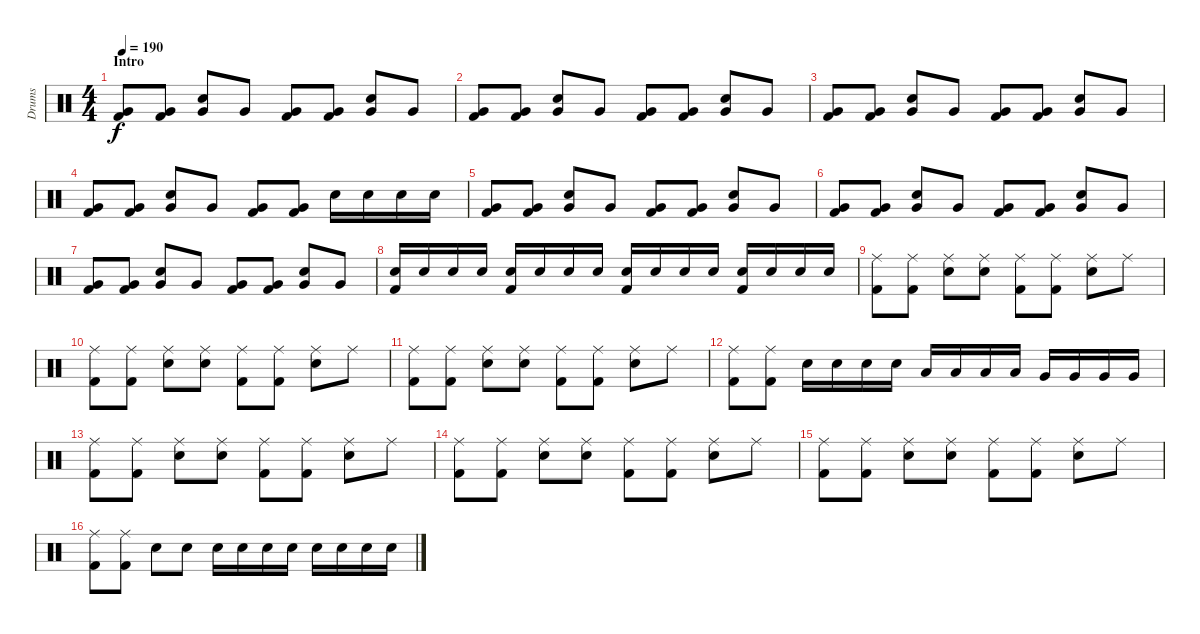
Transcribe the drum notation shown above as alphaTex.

\track ("Drums" "Drums") {instrument percussion}
\staff {score}
\articulation defaults
\ts (4 4)
\section ("" "Intro")
\tempo 190
\clef neutral
\ks c
("Very Low Tom (hit)" "Kick (hit) 2").8{dy f} ("Very Low Tom (hit)" "Kick (hit) 2").8 ("Very Low Tom (hit)" "Electric Snare (hit)").8 "Very Low Tom (hit)".8 ("Very Low Tom (hit)" "Kick (hit) 2").8 ("Very Low Tom (hit)" "Kick (hit) 2").8 ("Very Low Tom (hit)" "Electric Snare (hit)").8 "Very Low Tom (hit)".8 |
("Very Low Tom (hit)" "Kick (hit) 2").8 ("Very Low Tom (hit)" "Kick (hit) 2").8 ("Very Low Tom (hit)" "Electric Snare (hit)").8 "Very Low Tom (hit)".8 ("Very Low Tom (hit)" "Kick (hit) 2").8 ("Very Low Tom (hit)" "Kick (hit) 2").8 ("Very Low Tom (hit)" "Electric Snare (hit)").8 "Very Low Tom (hit)".8 |
("Very Low Tom (hit)" "Kick (hit) 2").8 ("Very Low Tom (hit)" "Kick (hit) 2").8 ("Very Low Tom (hit)" "Electric Snare (hit)").8 "Very Low Tom (hit)".8 ("Very Low Tom (hit)" "Kick (hit) 2").8 ("Very Low Tom (hit)" "Kick (hit) 2").8 ("Very Low Tom (hit)" "Electric Snare (hit)").8 "Very Low Tom (hit)".8 |
("Very Low Tom (hit)" "Kick (hit) 2").8 ("Very Low Tom (hit)" "Kick (hit) 2").8 ("Very Low Tom (hit)" "Electric Snare (hit)").8 "Very Low Tom (hit)".8 ("Very Low Tom (hit)" "Kick (hit) 2").8 ("Very Low Tom (hit)" "Kick (hit) 2").8 "Electric Snare (hit)".16 "Electric Snare (hit)".16 "Electric Snare (hit)".16 "Electric Snare (hit)".16 |
("Very Low Tom (hit)" "Kick (hit) 2").8 ("Very Low Tom (hit)" "Kick (hit) 2").8 ("Very Low Tom (hit)" "Electric Snare (hit)").8 "Very Low Tom (hit)".8 ("Very Low Tom (hit)" "Kick (hit) 2").8 ("Very Low Tom (hit)" "Kick (hit) 2").8 ("Very Low Tom (hit)" "Electric Snare (hit)").8 "Very Low Tom (hit)".8 |
("Very Low Tom (hit)" "Kick (hit) 2").8 ("Very Low Tom (hit)" "Kick (hit) 2").8 ("Very Low Tom (hit)" "Electric Snare (hit)").8 "Very Low Tom (hit)".8 ("Very Low Tom (hit)" "Kick (hit) 2").8 ("Very Low Tom (hit)" "Kick (hit) 2").8 ("Very Low Tom (hit)" "Electric Snare (hit)").8 "Very Low Tom (hit)".8 |
("Very Low Tom (hit)" "Kick (hit) 2").8 ("Very Low Tom (hit)" "Kick (hit) 2").8 ("Very Low Tom (hit)" "Electric Snare (hit)").8 "Very Low Tom (hit)".8 ("Very Low Tom (hit)" "Kick (hit) 2").8 ("Very Low Tom (hit)" "Kick (hit) 2").8 ("Very Low Tom (hit)" "Electric Snare (hit)").8 "Very Low Tom (hit)".8 |
("Kick (hit) 2" "Electric Snare (hit)").16 "Electric Snare (hit)".16 "Electric Snare (hit)".16 "Electric Snare (hit)".16 ("Kick (hit) 2" "Electric Snare (hit)").16 "Electric Snare (hit)".16 "Electric Snare (hit)".16 "Electric Snare (hit)".16 ("Kick (hit) 2" "Electric Snare (hit)").16 "Electric Snare (hit)".16 "Electric Snare (hit)".16 "Electric Snare (hit)".16 ("Kick (hit) 2" "Electric Snare (hit)").16 "Electric Snare (hit)".16 "Electric Snare (hit)".16 "Electric Snare (hit)".16 |
("Kick (hit) 2" "Ride (middle)").8 ("Kick (hit) 2" "Ride (middle)").8 ("Electric Snare (hit)" "Ride (middle)").8 ("Electric Snare (hit)" "Ride (middle)").8 ("Kick (hit) 2" "Ride (middle)").8 ("Kick (hit) 2" "Ride (middle)").8 ("Electric Snare (hit)" "Ride (middle)").8 "Ride (middle)".8 |
("Kick (hit) 2" "Ride (middle)").8 ("Kick (hit) 2" "Ride (middle)").8 ("Electric Snare (hit)" "Ride (middle)").8 ("Electric Snare (hit)" "Ride (middle)").8 ("Kick (hit) 2" "Ride (middle)").8 ("Kick (hit) 2" "Ride (middle)").8 ("Electric Snare (hit)" "Ride (middle)").8 "Ride (middle)".8 |
("Kick (hit) 2" "Ride (middle)").8 ("Kick (hit) 2" "Ride (middle)").8 ("Electric Snare (hit)" "Ride (middle)").8 ("Electric Snare (hit)" "Ride (middle)").8 ("Kick (hit) 2" "Ride (middle)").8 ("Kick (hit) 2" "Ride (middle)").8 ("Electric Snare (hit)" "Ride (middle)").8 "Ride (middle)".8 |
("Kick (hit) 2" "Ride (middle)").8 ("Kick (hit) 2" "Ride (middle)").8 "Electric Snare (hit)".16 "Electric Snare (hit)".16 "Electric Snare (hit)".16 "Electric Snare (hit)".16 "Low Floor Tom (hit)".16 "Low Floor Tom (hit)".16 "Low Floor Tom (hit)".16 "Low Floor Tom (hit)".16 "Very Low Tom (hit)".16 "Very Low Tom (hit)".16 "Very Low Tom (hit)".16 "Very Low Tom (hit)".16 |
("Kick (hit) 2" "Ride (middle)").8 ("Kick (hit) 2" "Ride (middle)").8 ("Electric Snare (hit)" "Ride (middle)").8 ("Electric Snare (hit)" "Ride (middle)").8 ("Kick (hit) 2" "Ride (middle)").8 ("Kick (hit) 2" "Ride (middle)").8 ("Electric Snare (hit)" "Ride (middle)").8 "Ride (middle)".8 |
("Kick (hit) 2" "Ride (middle)").8 ("Kick (hit) 2" "Ride (middle)").8 ("Electric Snare (hit)" "Ride (middle)").8 ("Electric Snare (hit)" "Ride (middle)").8 ("Kick (hit) 2" "Ride (middle)").8 ("Kick (hit) 2" "Ride (middle)").8 ("Electric Snare (hit)" "Ride (middle)").8 "Ride (middle)".8 |
("Kick (hit) 2" "Ride (middle)").8 ("Kick (hit) 2" "Ride (middle)").8 ("Electric Snare (hit)" "Ride (middle)").8 ("Electric Snare (hit)" "Ride (middle)").8 ("Kick (hit) 2" "Ride (middle)").8 ("Kick (hit) 2" "Ride (middle)").8 ("Electric Snare (hit)" "Ride (middle)").8 "Ride (middle)".8 |
("Kick (hit) 2" "Ride (middle)").8 ("Kick (hit) 2" "Ride (middle)").8 "Electric Snare (hit)".8 "Electric Snare (hit)".8 "Electric Snare (hit)".16 "Electric Snare (hit)".16 "Electric Snare (hit)".16 "Electric Snare (hit)".16 "Electric Snare (hit)".16 "Electric Snare (hit)".16 "Electric Snare (hit)".16 "Electric Snare (hit)".16
